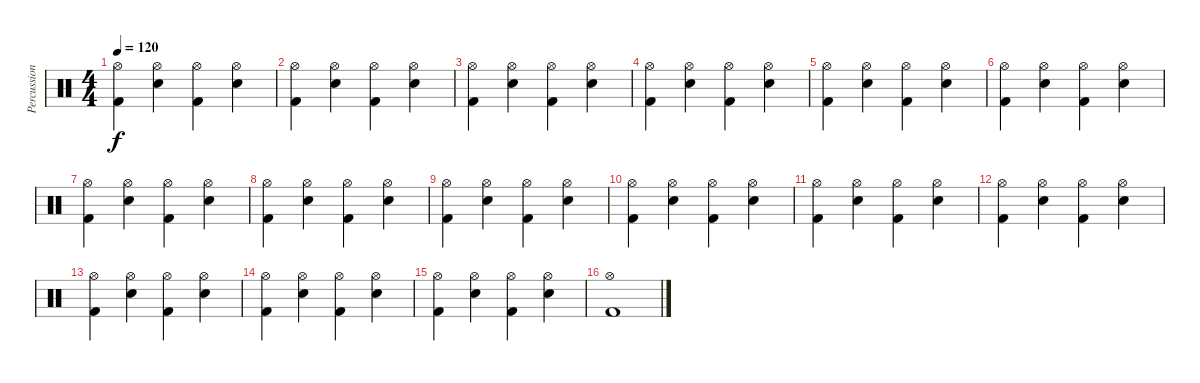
\track ("Percussions" "Percussion") {instrument percussion}
\staff {score}
\articulation defaults
\ts (4 4)
\tempo 120
\clef neutral
\ks c
("Hi-Hat (open)" "Kick (hit) 2").4{dy f} ("Hi-Hat (open)" "Electric Snare (hit)").4 ("Hi-Hat (open)" "Kick (hit) 2").4 ("Hi-Hat (open)" "Electric Snare (hit)").4 |
("Hi-Hat (open)" "Kick (hit) 2").4 ("Hi-Hat (open)" "Electric Snare (hit)").4 ("Hi-Hat (open)" "Kick (hit) 2").4 ("Hi-Hat (open)" "Electric Snare (hit)").4 |
("Hi-Hat (open)" "Kick (hit) 2").4 ("Hi-Hat (open)" "Electric Snare (hit)").4 ("Hi-Hat (open)" "Kick (hit) 2").4 ("Hi-Hat (open)" "Electric Snare (hit)").4 |
("Hi-Hat (open)" "Kick (hit) 2").4 ("Hi-Hat (open)" "Electric Snare (hit)").4 ("Hi-Hat (open)" "Kick (hit) 2").4 ("Hi-Hat (open)" "Electric Snare (hit)").4 |
("Hi-Hat (open)" "Kick (hit) 2").4 ("Hi-Hat (open)" "Electric Snare (hit)").4 ("Hi-Hat (open)" "Kick (hit) 2").4 ("Hi-Hat (open)" "Electric Snare (hit)").4 |
("Hi-Hat (open)" "Kick (hit) 2").4 ("Hi-Hat (open)" "Electric Snare (hit)").4 ("Hi-Hat (open)" "Kick (hit) 2").4 ("Hi-Hat (open)" "Electric Snare (hit)").4 |
("Hi-Hat (open)" "Kick (hit) 2").4 ("Hi-Hat (open)" "Electric Snare (hit)").4 ("Hi-Hat (open)" "Kick (hit) 2").4 ("Hi-Hat (open)" "Electric Snare (hit)").4 |
("Hi-Hat (open)" "Kick (hit) 2").4 ("Hi-Hat (open)" "Electric Snare (hit)").4 ("Hi-Hat (open)" "Kick (hit) 2").4 ("Hi-Hat (open)" "Electric Snare (hit)").4 |
("Hi-Hat (open)" "Kick (hit) 2").4 ("Hi-Hat (open)" "Electric Snare (hit)").4 ("Hi-Hat (open)" "Kick (hit) 2").4 ("Hi-Hat (open)" "Electric Snare (hit)").4 |
("Hi-Hat (open)" "Kick (hit) 2").4 ("Hi-Hat (open)" "Electric Snare (hit)").4 ("Hi-Hat (open)" "Kick (hit) 2").4 ("Hi-Hat (open)" "Electric Snare (hit)").4 |
("Hi-Hat (open)" "Kick (hit) 2").4 ("Hi-Hat (open)" "Electric Snare (hit)").4 ("Hi-Hat (open)" "Kick (hit) 2").4 ("Hi-Hat (open)" "Electric Snare (hit)").4 |
("Hi-Hat (open)" "Kick (hit) 2").4 ("Hi-Hat (open)" "Electric Snare (hit)").4 ("Hi-Hat (open)" "Kick (hit) 2").4 ("Hi-Hat (open)" "Electric Snare (hit)").4 |
("Hi-Hat (open)" "Kick (hit) 2").4 ("Hi-Hat (open)" "Electric Snare (hit)").4 ("Hi-Hat (open)" "Kick (hit) 2").4 ("Hi-Hat (open)" "Electric Snare (hit)").4 |
("Hi-Hat (open)" "Kick (hit) 2").4 ("Hi-Hat (open)" "Electric Snare (hit)").4 ("Hi-Hat (open)" "Kick (hit) 2").4 ("Hi-Hat (open)" "Electric Snare (hit)").4 |
("Hi-Hat (open)" "Kick (hit) 2").4 ("Hi-Hat (open)" "Electric Snare (hit)").4 ("Hi-Hat (open)" "Kick (hit) 2").4 ("Hi-Hat (open)" "Electric Snare (hit)").4 |
("Hi-Hat (open)" "Kick (hit) 2").1
